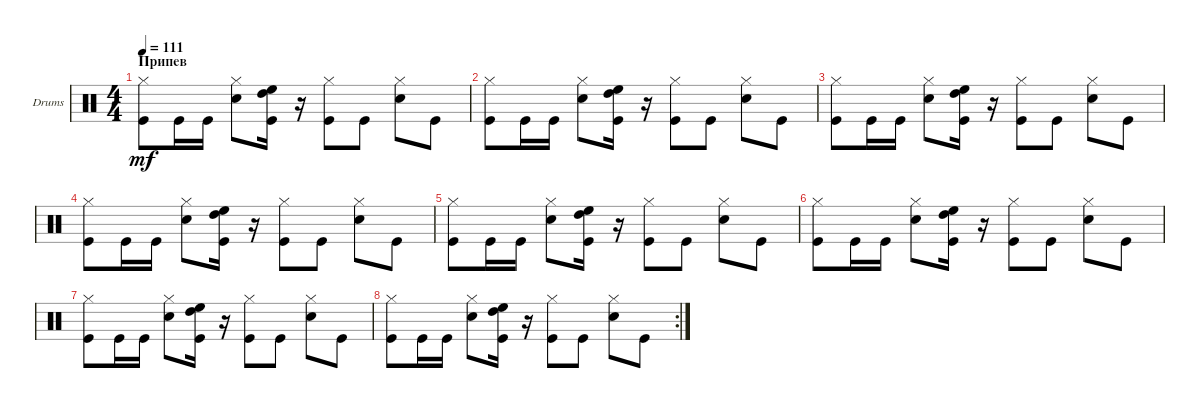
\defaultSystemsLayout 4
\bracketExtendMode groupsimilarinstruments
\firstSystemTrackNameOrientation horizontal
\otherSystemsTrackNameOrientation horizontal
\track ("Drumkit" "Drums") {instrument percussion}
\staff {score}
\articulation defaults
\ts (4 4)
\section ("" "Припев")
\tempo 111
\clef neutral
\ks c
("Kick (hit)" "Hi-Hat (closed)").8{dy mf} "Kick (hit)".16 "Kick (hit)".16 ("Snare (hit) 2" "Hi-Hat (closed)").8 ("Kick (hit)" "High Tom (hit)" "High Floor Tom (hit)").16 r.16 ("Kick (hit)" "Hi-Hat (closed)").8 "Kick (hit)".8 ("Hi-Hat (closed)" "Snare (hit) 2").8 "Kick (hit)".8 |
("Kick (hit)" "Hi-Hat (closed)").8 "Kick (hit)".16 "Kick (hit)".16 ("Snare (hit) 2" "Hi-Hat (closed)").8 ("Kick (hit)" "High Tom (hit)" "High Floor Tom (hit)").16 r.16 ("Kick (hit)" "Hi-Hat (closed)").8 "Kick (hit)".8 ("Hi-Hat (closed)" "Snare (hit) 2").8 "Kick (hit)".8 |
("Kick (hit)" "Hi-Hat (closed)").8 "Kick (hit)".16 "Kick (hit)".16 ("Snare (hit) 2" "Hi-Hat (closed)").8 ("Kick (hit)" "High Tom (hit)" "High Floor Tom (hit)").16 r.16 ("Kick (hit)" "Hi-Hat (closed)").8 "Kick (hit)".8 ("Hi-Hat (closed)" "Snare (hit) 2").8 "Kick (hit)".8 |
("Kick (hit)" "Hi-Hat (closed)").8 "Kick (hit)".16 "Kick (hit)".16 ("Snare (hit) 2" "Hi-Hat (closed)").8 ("Kick (hit)" "High Tom (hit)" "High Floor Tom (hit)").16 r.16 ("Kick (hit)" "Hi-Hat (closed)").8 "Kick (hit)".8 ("Hi-Hat (closed)" "Snare (hit) 2").8 "Kick (hit)".8 |
("Kick (hit)" "Hi-Hat (closed)").8 "Kick (hit)".16 "Kick (hit)".16 ("Snare (hit) 2" "Hi-Hat (closed)").8 ("Kick (hit)" "High Tom (hit)" "High Floor Tom (hit)").16 r.16 ("Kick (hit)" "Hi-Hat (closed)").8 "Kick (hit)".8 ("Hi-Hat (closed)" "Snare (hit) 2").8 "Kick (hit)".8 |
("Kick (hit)" "Hi-Hat (closed)").8 "Kick (hit)".16 "Kick (hit)".16 ("Snare (hit) 2" "Hi-Hat (closed)").8 ("Kick (hit)" "High Tom (hit)" "High Floor Tom (hit)").16 r.16 ("Kick (hit)" "Hi-Hat (closed)").8 "Kick (hit)".8 ("Hi-Hat (closed)" "Snare (hit) 2").8 "Kick (hit)".8 |
("Kick (hit)" "Hi-Hat (closed)").8 "Kick (hit)".16 "Kick (hit)".16 ("Snare (hit) 2" "Hi-Hat (closed)").8 ("Kick (hit)" "High Tom (hit)" "High Floor Tom (hit)").16 r.16 ("Kick (hit)" "Hi-Hat (closed)").8 "Kick (hit)".8 ("Hi-Hat (closed)" "Snare (hit) 2").8 "Kick (hit)".8 |
\rc 2
("Kick (hit)" "Hi-Hat (closed)").8 "Kick (hit)".16 "Kick (hit)".16 ("Snare (hit) 2" "Hi-Hat (closed)").8 ("Kick (hit)" "High Tom (hit)" "High Floor Tom (hit)").16 r.16 ("Kick (hit)" "Hi-Hat (closed)").8 "Kick (hit)".8 ("Hi-Hat (closed)" "Snare (hit) 2").8 "Kick (hit)".8
